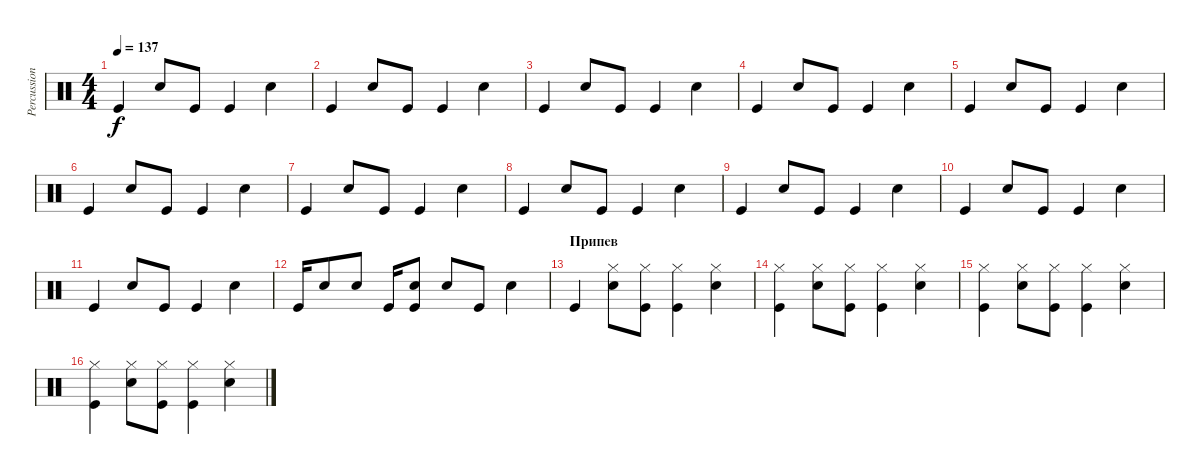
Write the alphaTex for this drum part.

\track ("Percussion" "Percussion") {instrument percussion}
\staff {score}
\articulation defaults
\ts (4 4)
\tempo 137
\clef neutral
\ks c "Kick (hit)".4{dy f} "Snare (hit) 2".8 "Kick (hit)".8 "Kick (hit)".4 "Snare (hit) 2".4
|
"Kick (hit)".4 "Snare (hit) 2".8 "Kick (hit)".8 "Kick (hit)".4 "Snare (hit) 2".4 |
"Kick (hit)".4 "Snare (hit) 2".8 "Kick (hit)".8 "Kick (hit)".4 "Snare (hit) 2".4 |
"Kick (hit)".4 "Snare (hit) 2".8 "Kick (hit)".8 "Kick (hit)".4 "Snare (hit) 2".4 |
"Kick (hit)".4 "Snare (hit) 2".8 "Kick (hit)".8 "Kick (hit)".4 "Snare (hit) 2".4 |
"Kick (hit)".4 "Snare (hit) 2".8 "Kick (hit)".8 "Kick (hit)".4 "Snare (hit) 2".4 |
"Kick (hit)".4 "Snare (hit) 2".8 "Kick (hit)".8 "Kick (hit)".4 "Snare (hit) 2".4 |
"Kick (hit)".4 "Snare (hit) 2".8 "Kick (hit)".8 "Kick (hit)".4 "Snare (hit) 2".4 |
"Kick (hit)".4 "Snare (hit) 2".8 "Kick (hit)".8 "Kick (hit)".4 "Snare (hit) 2".4 |
"Kick (hit)".4 "Snare (hit) 2".8 "Kick (hit)".8 "Kick (hit)".4 "Snare (hit) 2".4 |
"Kick (hit)".4 "Snare (hit) 2".8 "Kick (hit)".8 "Kick (hit)".4 "Snare (hit) 2".4 |
"Kick (hit)".16 "Snare (hit) 2".8 "Snare (hit) 2".8 "Kick (hit)".16 ("Snare (hit) 2" "Kick (hit)").8 "Snare (hit) 2".8 "Kick (hit)".8 "Snare (hit) 2".4 |
\section ("" "Припев")
"Kick (hit)".4 ("Hi-Hat (closed)" "Snare (hit) 2").8 ("Hi-Hat (closed)" "Kick (hit)").8 ("Hi-Hat (closed)" "Kick (hit)").4 ("Hi-Hat (closed)" "Snare (hit) 2").4 |
("Hi-Hat (closed)" "Kick (hit)").4 ("Hi-Hat (closed)" "Snare (hit) 2").8 ("Hi-Hat (closed)" "Kick (hit)").8 ("Hi-Hat (closed)" "Kick (hit)").4 ("Hi-Hat (closed)" "Snare (hit) 2").4 |
("Hi-Hat (closed)" "Kick (hit)").4 ("Hi-Hat (closed)" "Snare (hit) 2").8 ("Hi-Hat (closed)" "Kick (hit)").8 ("Hi-Hat (closed)" "Kick (hit)").4 ("Hi-Hat (closed)" "Snare (hit) 2").4 |
("Hi-Hat (closed)" "Kick (hit)").4 ("Hi-Hat (closed)" "Snare (hit) 2").8 ("Hi-Hat (closed)" "Kick (hit)").8 ("Hi-Hat (closed)" "Kick (hit)").4 ("Hi-Hat (closed)" "Snare (hit) 2").4
